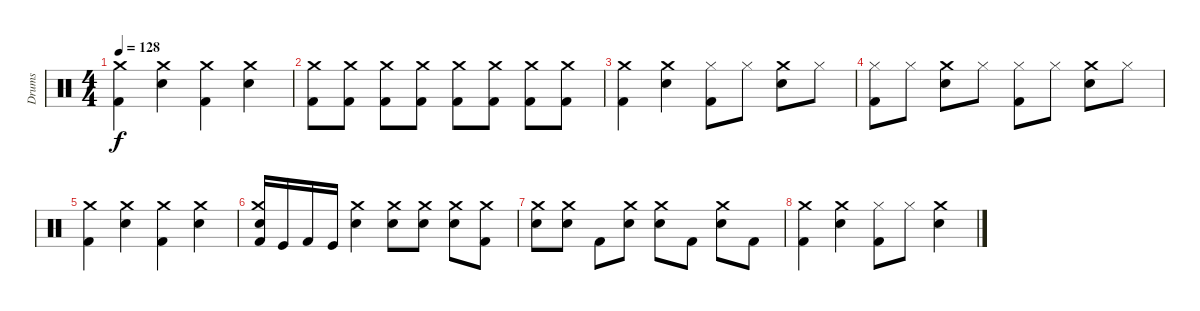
\track ("Drums" "Drums") {instrument percussion}
\staff {score}
\articulation defaults
\ts (4 4)
\tempo 128
\clef neutral
\ks c
("Kick (hit) 2" "Crash medium (hit)").4{dy f} ("Snare (hit) 2" "Crash medium (hit)").4 ("Kick (hit) 2" "Crash medium (hit)").4 ("Snare (hit) 2" "Crash medium (hit)").4 |
("Kick (hit) 2" "Crash medium (hit)").8 ("Kick (hit) 2" "Crash medium (hit)").8 ("Kick (hit) 2" "Crash medium (hit)").8 ("Kick (hit) 2" "Crash medium (hit)").8 ("Kick (hit) 2" "Crash medium (hit)").8 ("Kick (hit) 2" "Crash medium (hit)").8 ("Kick (hit) 2" "Crash medium (hit)").8 ("Kick (hit) 2" "Crash medium (hit)").8 |
("Crash medium (hit)" "Kick (hit) 2").4 ("Crash medium (hit)" "Snare (hit) 2").4 ("Kick (hit) 2" "Hi-Hat (closed)").8 "Hi-Hat (closed)".8 ("Crash medium (hit)" "Snare (hit) 2").8 "Hi-Hat (closed)".8 |
("Hi-Hat (closed)" "Kick (hit) 2").8 "Hi-Hat (closed)".8 ("Crash medium (hit)" "Snare (hit) 2").8 "Hi-Hat (closed)".8 ("Hi-Hat (closed)" "Kick (hit) 2").8 "Hi-Hat (closed)".8 ("Crash medium (hit)" "Snare (hit) 2").8 "Hi-Hat (closed)".8 |
("Crash medium (hit)" "Kick (hit) 2").4 ("Crash medium (hit)" "Snare (hit) 2").4 ("Crash medium (hit)" "Kick (hit) 2").4 ("Crash medium (hit)" "Snare (hit) 2").4 |
("Kick (hit) 2" "Snare (hit) 2" "Crash medium (hit)").16 "Kick (hit)".16 "Kick (hit) 2".16 "Kick (hit)".16 ("Snare (hit) 2" "Crash medium (hit)").4 ("Crash medium (hit)" "Snare (hit) 2").8 ("Crash medium (hit)" "Snare (hit) 2").8 ("Crash medium (hit)" "Snare (hit) 2").8 ("Crash medium (hit)" "Kick (hit) 2").8 |
("Snare (hit) 2" "Crash medium (hit)").8 ("Snare (hit) 2" "Crash medium (hit)").8 "Kick (hit) 2".8 ("Crash medium (hit)" "Snare (hit) 2").8 ("Snare (hit) 2" "Crash medium (hit)").8 "Kick (hit) 2".8 ("Snare (hit) 2" "Crash medium (hit)").8 "Kick (hit) 2".8 |
("Crash medium (hit)" "Kick (hit) 2").4 ("Crash medium (hit)" "Snare (hit) 2").4 ("Kick (hit) 2" "Hi-Hat (closed)").8 "Hi-Hat (closed)".8 ("Snare (hit) 2" "Crash medium (hit)").4
